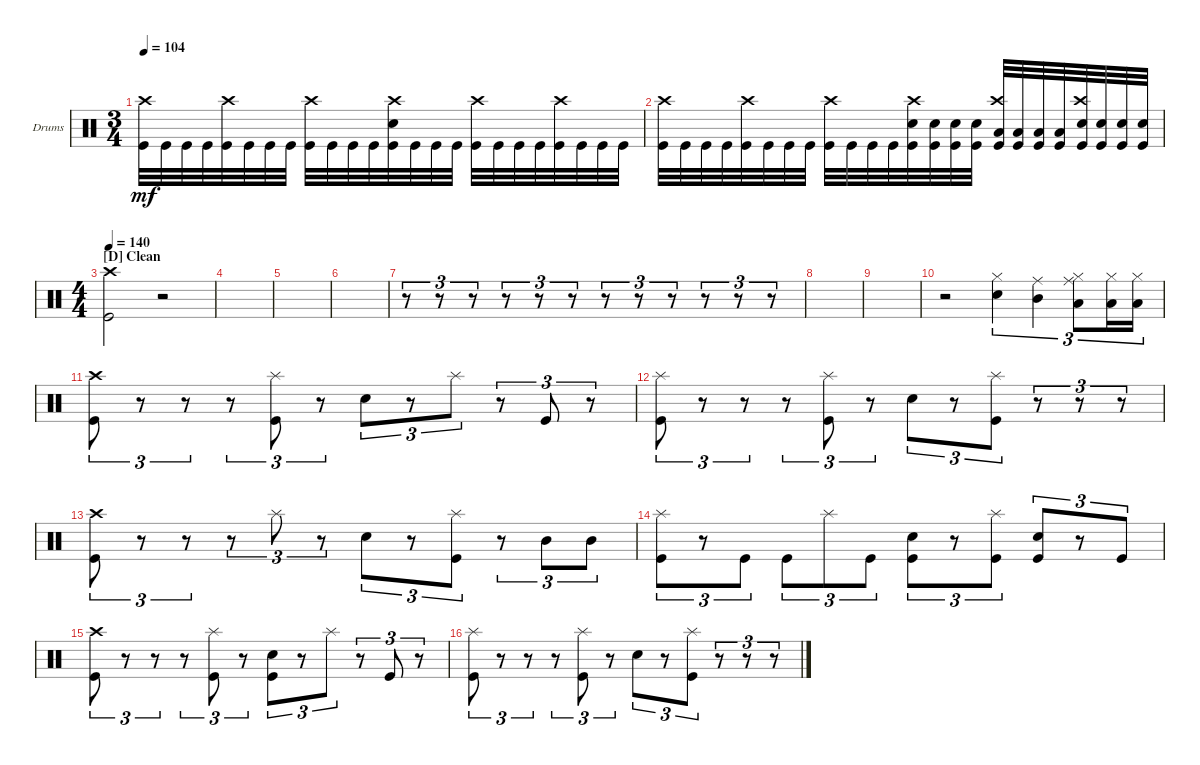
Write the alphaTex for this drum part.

\bracketExtendMode groupsimilarinstruments
\firstSystemTrackNameOrientation horizontal
\otherSystemsTrackNameOrientation horizontal
\track ("Drumkit" "Drums") {instrument percussion}
\staff {score}
\articulation defaults
\ts (3 4)
\tempo 104
\clef neutral
\ks c
("Kick (hit)" "Crash high (hit)").32{dy mf} "Kick (hit)".32 "Kick (hit)".32 "Kick (hit)".32 ("Kick (hit)" "Crash high (hit)").32 "Kick (hit)".32 "Kick (hit)".32 "Kick (hit)".32 ("Kick (hit)" "Crash high (hit)").32 "Kick (hit)".32 "Kick (hit)".32 "Kick (hit)".32 ("Kick (hit)" "Crash high (hit)" "Snare (hit) 2").32 "Kick (hit)".32 "Kick (hit)".32 "Kick (hit)".32 ("Kick (hit)" "Crash high (hit)").32 "Kick (hit)".32 "Kick (hit)".32 "Kick (hit)".32 ("Kick (hit)" "Crash high (hit)").32 "Kick (hit)".32 "Kick (hit)".32 "Kick (hit)".32 |
("Kick (hit)" "Crash high (hit)").32 "Kick (hit)".32 "Kick (hit)".32 "Kick (hit)".32 ("Kick (hit)" "Crash high (hit)").32 "Kick (hit)".32 "Kick (hit)".32 "Kick (hit)".32 ("Kick (hit)" "Crash high (hit)").32 "Kick (hit)".32 "Kick (hit)".32 "Kick (hit)".32 ("Kick (hit)" "Crash high (hit)" "Snare (hit) 2").32 ("Kick (hit)" "Snare (hit) 2").32 ("Kick (hit)" "Snare (hit) 2").32 ("Kick (hit)" "Snare (hit) 2").32 ("Kick (hit)" "Crash high (hit)" "Low Tom (hit)").32 ("Kick (hit)" "Low Tom (hit)").32 ("Kick (hit)" "Low Tom (hit)").32 ("Kick (hit)" "Low Tom (hit)").32 ("Kick (hit)" "Crash high (hit)" "Snare (hit) 2").32 ("Kick (hit)" "Snare (hit) 2").32 ("Kick (hit)" "Snare (hit) 2").32 ("Kick (hit)" "Snare (hit) 2").32 |
\ts (4 4)
\section ("D" "Clean")
\tempo 140
("Crash high (hit)" "Kick (hit)").2 r.2 |
|
|
|
r.8{tu (3 2)} r.8{tu (3 2)} r.8{tu (3 2)} r.8{tu (3 2)} r.8{tu (3 2)} r.8{tu (3 2)} r.8{tu (3 2)} r.8{tu (3 2)} r.8{tu (3 2)} r.8{tu (3 2)} r.8{tu (3 2)} r.8{tu (3 2)} |
|
|
r.2 ("Snare (hit) 2" "Hi-Hat (closed)").4{tu (3 2)} ("Mid Tom (hit)" "Ride (middle)").4{tu (3 2)} ("Low Tom (hit)" "Hi-Hat (closed)" "Ride (middle)").8{tu (3 2)} ("Low Tom (hit)" "Hi-Hat (closed)").16{tu (3 2)} ("Low Tom (hit)" "Hi-Hat (closed)").16{tu (3 2)} |
("Kick (hit)" "Crash high (hit)").8{tu (3 2)} r.8{tu (3 2)} r.8{tu (3 2)} r.8{tu (3 2)} ("Kick (hit)" "Splash (hit)").8{tu (3 2)} r.8{tu (3 2)} "Snare (hit) 2".8{tu (3 2)} r.8{tu (3 2)} "Splash (hit)".8{tu (3 2)} r.8{tu (3 2)} "Kick (hit)".8{tu (3 2)} r.8{tu (3 2)} |
("Kick (hit)" "Splash (hit)").8{tu (3 2)} r.8{tu (3 2)} r.8{tu (3 2)} r.8{tu (3 2)} ("Kick (hit)" "Splash (hit)").8{tu (3 2)} r.8{tu (3 2)} "Snare (hit) 2".8{tu (3 2)} r.8{tu (3 2)} ("Kick (hit)" "Splash (hit)").8{tu (3 2)} r.8{tu (3 2)} r.8{tu (3 2)} r.8{tu (3 2)} |
("Kick (hit)" "Crash high (hit)").8{tu (3 2)} r.8{tu (3 2)} r.8{tu (3 2)} r.8{tu (3 2)} "Splash (hit)".8{tu (3 2)} r.8{tu (3 2)} "Snare (hit) 2".8{tu (3 2)} r.8{tu (3 2)} ("Kick (hit)" "Splash (hit)").8{tu (3 2)} r.8{tu (3 2)} "Mid Tom (hit)".8{tu (3 2)} "Mid Tom (hit)".8{tu (3 2)} |
("Kick (hit)" "Splash (hit)").8{tu (3 2)} r.8{tu (3 2)} "Kick (hit)".8{tu (3 2)} "Kick (hit)".8{tu (3 2)} "Splash (hit)".8{tu (3 2)} "Kick (hit)".8{tu (3 2)} ("Snare (hit) 2" "Kick (hit)").8{tu (3 2)} r.8{tu (3 2)} ("Kick (hit)" "Splash (hit)").8{tu (3 2)} ("Snare (hit) 2" "Kick (hit)").8{tu (3 2)} r.8{tu (3 2)} "Kick (hit)".8{tu (3 2)} |
("Kick (hit)" "Crash high (hit)").8{tu (3 2)} r.8{tu (3 2)} r.8{tu (3 2)} r.8{tu (3 2)} ("Kick (hit)" "Splash (hit)").8{tu (3 2)} r.8{tu (3 2)} ("Snare (hit) 2" "Kick (hit)").8{tu (3 2)} r.8{tu (3 2)} "Splash (hit)".8{tu (3 2)} r.8{tu (3 2)} "Kick (hit)".8{tu (3 2)} r.8{tu (3 2)} |
("Kick (hit)" "Splash (hit)").8{tu (3 2)} r.8{tu (3 2)} r.8{tu (3 2)} r.8{tu (3 2)} ("Kick (hit)" "Splash (hit)").8{tu (3 2)} r.8{tu (3 2)} "Snare (hit) 2".8{tu (3 2)} r.8{tu (3 2)} ("Kick (hit)" "Splash (hit)").8{tu (3 2)} r.8{tu (3 2)} r.8{tu (3 2)} r.8{tu (3 2)}
